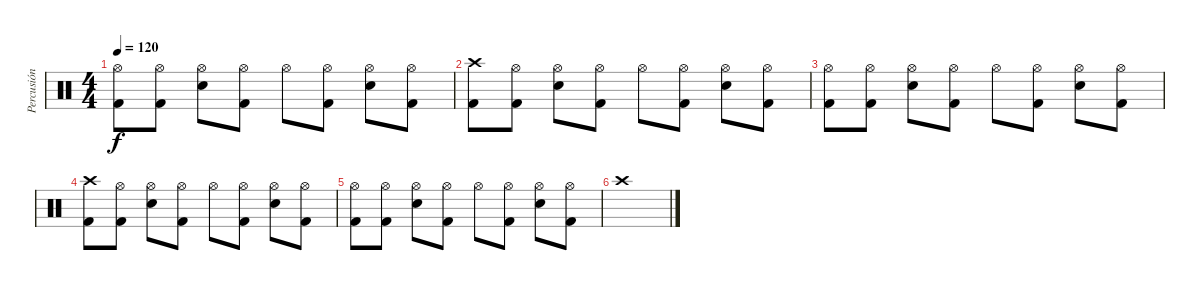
\track ("Percusión" "Percusión") {instrument percussion}
\staff {score}
\articulation defaults
\ts (4 4)
\tempo 120
\clef neutral
\ks c
("Hi-Hat (open)" "Kick (hit) 2").8{dy f} ("Hi-Hat (open)" "Kick (hit) 2").8 ("Hi-Hat (open)" "Snare (hit) 2").8 ("Hi-Hat (open)" "Kick (hit) 2").8 "Hi-Hat (open)".8 ("Hi-Hat (open)" "Kick (hit) 2").8 ("Hi-Hat (open)" "Snare (hit) 2").8 ("Hi-Hat (open)" "Kick (hit) 2").8 |
("Crash high (hit)" "Kick (hit) 2").8 ("Hi-Hat (open)" "Kick (hit) 2").8 ("Hi-Hat (open)" "Snare (hit) 2").8 ("Hi-Hat (open)" "Kick (hit) 2").8 "Hi-Hat (open)".8 ("Hi-Hat (open)" "Kick (hit) 2").8 ("Hi-Hat (open)" "Snare (hit) 2").8 ("Hi-Hat (open)" "Kick (hit) 2").8 |
("Hi-Hat (open)" "Kick (hit) 2").8 ("Hi-Hat (open)" "Kick (hit) 2").8 ("Hi-Hat (open)" "Snare (hit) 2").8 ("Hi-Hat (open)" "Kick (hit) 2").8 "Hi-Hat (open)".8 ("Hi-Hat (open)" "Kick (hit) 2").8 ("Hi-Hat (open)" "Snare (hit) 2").8 ("Hi-Hat (open)" "Kick (hit) 2").8 |
("Crash high (hit)" "Kick (hit) 2").8 ("Hi-Hat (open)" "Kick (hit) 2").8 ("Hi-Hat (open)" "Snare (hit) 2").8 ("Hi-Hat (open)" "Kick (hit) 2").8 "Hi-Hat (open)".8 ("Hi-Hat (open)" "Kick (hit) 2").8 ("Hi-Hat (open)" "Snare (hit) 2").8 ("Hi-Hat (open)" "Kick (hit) 2").8 |
("Hi-Hat (open)" "Kick (hit) 2").8 ("Hi-Hat (open)" "Kick (hit) 2").8 ("Hi-Hat (open)" "Snare (hit) 2").8 ("Hi-Hat (open)" "Kick (hit) 2").8 "Hi-Hat (open)".8 ("Hi-Hat (open)" "Kick (hit) 2").8 ("Hi-Hat (open)" "Snare (hit) 2").8 ("Hi-Hat (open)" "Kick (hit) 2").8 |
"Crash high (hit)".1
